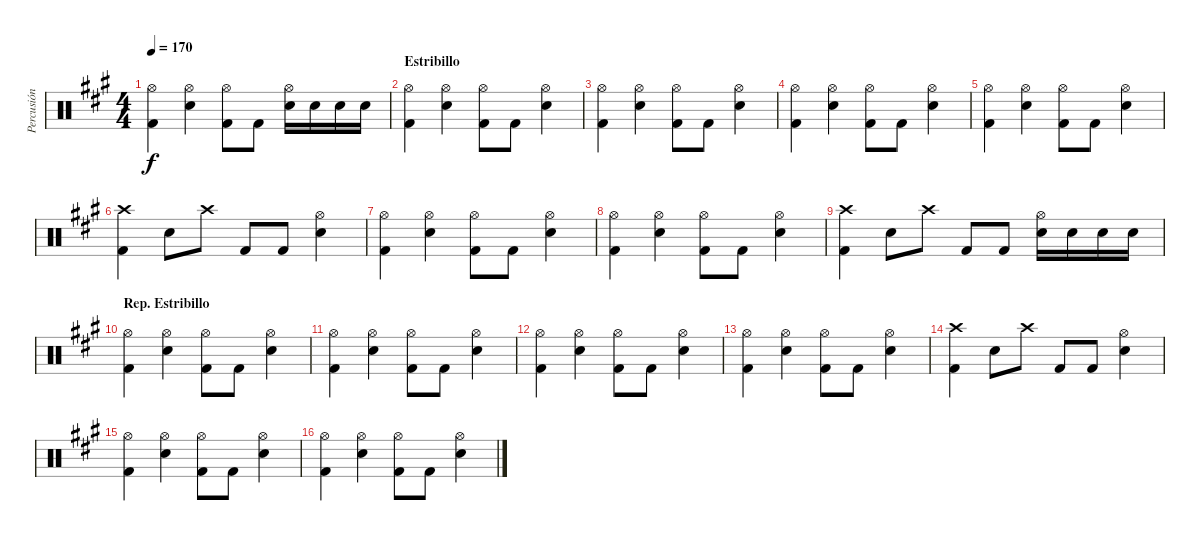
\track ("Percusión" "Percusión") {instrument percussion}
\staff {score}
\articulation defaults
\ts (4 4)
\tempo 170
\clef neutral
\ks a
("Hi-Hat (open)" "Kick (hit) 2").4{dy f} ("Hi-Hat (open)" "Snare (hit) 2").4 ("Hi-Hat (open)" "Kick (hit) 2").8 "Kick (hit) 2".8 ("Hi-Hat (open)" "Snare (hit) 2").16 "Snare (hit) 2".16 "Snare (hit) 2".16 "Snare (hit) 2".16 |
\section ("" "Estribillo")
("Hi-Hat (open)" "Kick (hit) 2").4 ("Hi-Hat (open)" "Snare (hit) 2").4 ("Hi-Hat (open)" "Kick (hit) 2").8 "Kick (hit) 2".8 ("Hi-Hat (open)" "Snare (hit) 2").4 |
("Hi-Hat (open)" "Kick (hit) 2").4 ("Hi-Hat (open)" "Snare (hit) 2").4 ("Hi-Hat (open)" "Kick (hit) 2").8 "Kick (hit) 2".8 ("Hi-Hat (open)" "Snare (hit) 2").4 |
("Hi-Hat (open)" "Kick (hit) 2").4 ("Hi-Hat (open)" "Snare (hit) 2").4 ("Hi-Hat (open)" "Kick (hit) 2").8 "Kick (hit) 2".8 ("Hi-Hat (open)" "Snare (hit) 2").4 |
("Hi-Hat (open)" "Kick (hit) 2").4 ("Hi-Hat (open)" "Snare (hit) 2").4 ("Hi-Hat (open)" "Kick (hit) 2").8 "Kick (hit) 2".8 ("Hi-Hat (open)" "Snare (hit) 2").4 |
("Crash high (hit)" "Kick (hit) 2").4 "Snare (hit) 2".8 "Crash high (hit)".8 "Kick (hit) 2".8 "Kick (hit) 2".8 ("Hi-Hat (open)" "Snare (hit) 2").4 |
("Hi-Hat (open)" "Kick (hit) 2").4 ("Hi-Hat (open)" "Snare (hit) 2").4 ("Hi-Hat (open)" "Kick (hit) 2").8 "Kick (hit) 2".8 ("Hi-Hat (open)" "Snare (hit) 2").4 |
("Hi-Hat (open)" "Kick (hit) 2").4 ("Hi-Hat (open)" "Snare (hit) 2").4 ("Hi-Hat (open)" "Kick (hit) 2").8 "Kick (hit) 2".8 ("Hi-Hat (open)" "Snare (hit) 2").4 |
("Crash high (hit)" "Kick (hit) 2").4 "Snare (hit) 2".8 "Crash high (hit)".8 "Kick (hit) 2".8 "Kick (hit) 2".8 ("Hi-Hat (open)" "Snare (hit) 2").16 "Snare (hit) 2".16 "Snare (hit) 2".16 "Snare (hit) 2".16 |
\section ("" "Rep. Estribillo")
("Hi-Hat (open)" "Kick (hit) 2").4 ("Hi-Hat (open)" "Snare (hit) 2").4 ("Hi-Hat (open)" "Kick (hit) 2").8 "Kick (hit) 2".8 ("Hi-Hat (open)" "Snare (hit) 2").4 |
("Hi-Hat (open)" "Kick (hit) 2").4 ("Hi-Hat (open)" "Snare (hit) 2").4 ("Hi-Hat (open)" "Kick (hit) 2").8 "Kick (hit) 2".8 ("Hi-Hat (open)" "Snare (hit) 2").4 |
("Hi-Hat (open)" "Kick (hit) 2").4 ("Hi-Hat (open)" "Snare (hit) 2").4 ("Hi-Hat (open)" "Kick (hit) 2").8 "Kick (hit) 2".8 ("Hi-Hat (open)" "Snare (hit) 2").4 |
("Hi-Hat (open)" "Kick (hit) 2").4 ("Hi-Hat (open)" "Snare (hit) 2").4 ("Hi-Hat (open)" "Kick (hit) 2").8 "Kick (hit) 2".8 ("Hi-Hat (open)" "Snare (hit) 2").4 |
("Crash high (hit)" "Kick (hit) 2").4 "Snare (hit) 2".8 "Crash high (hit)".8 "Kick (hit) 2".8 "Kick (hit) 2".8 ("Hi-Hat (open)" "Snare (hit) 2").4 |
("Hi-Hat (open)" "Kick (hit) 2").4 ("Hi-Hat (open)" "Snare (hit) 2").4 ("Hi-Hat (open)" "Kick (hit) 2").8 "Kick (hit) 2".8 ("Hi-Hat (open)" "Snare (hit) 2").4 |
("Hi-Hat (open)" "Kick (hit) 2").4 ("Hi-Hat (open)" "Snare (hit) 2").4 ("Hi-Hat (open)" "Kick (hit) 2").8 "Kick (hit) 2".8 ("Hi-Hat (open)" "Snare (hit) 2").4
